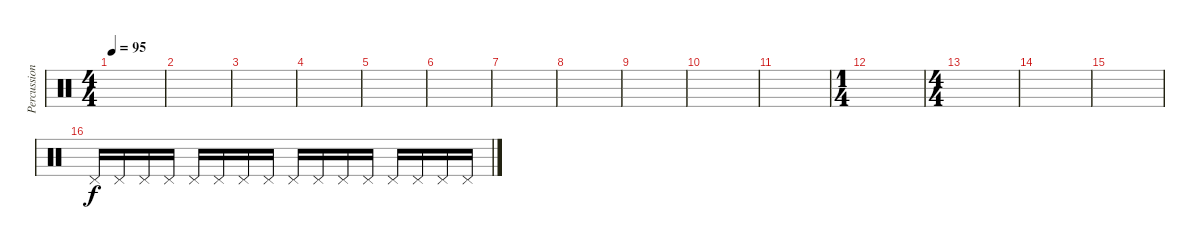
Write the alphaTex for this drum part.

\track ("Percussion" "Percussion") {instrument percussion}
\staff {score}
\articulation defaults
\ts (4 4)
\tempo 95
\clef neutral
\ks c
|
|
|
|
|
|
|
|
|
|
|
\ts (1 4)
|
\ts (4 4)
|
|
|
"Pedal Hi-Hat (hit)".16 "Pedal Hi-Hat (hit)".16 "Pedal Hi-Hat (hit)".16 "Pedal Hi-Hat (hit)".16 "Pedal Hi-Hat (hit)".16 "Pedal Hi-Hat (hit)".16 "Pedal Hi-Hat (hit)".16 "Pedal Hi-Hat (hit)".16 "Pedal Hi-Hat (hit)".16 "Pedal Hi-Hat (hit)".16 "Pedal Hi-Hat (hit)".16 "Pedal Hi-Hat (hit)".16 "Pedal Hi-Hat (hit)".16 "Pedal Hi-Hat (hit)".16 "Pedal Hi-Hat (hit)".16 "Pedal Hi-Hat (hit)".16
